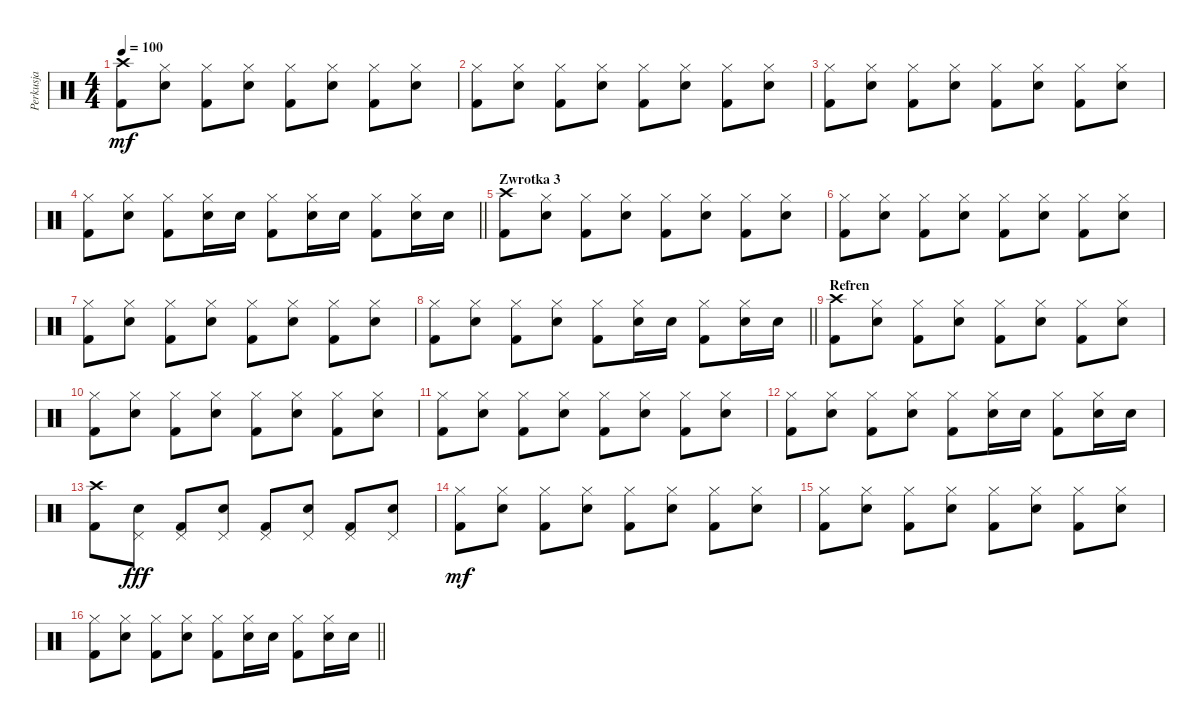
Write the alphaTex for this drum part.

\track ("Perkusja" "Perkusja") {instrument percussion}
\staff {score}
\articulation defaults
\ts (4 4)
\tempo 100
\clef neutral
\ks c
("Kick (hit) 2" "Crash high (hit)").8{dy mf} ("Snare (hit) 2" "Hi-Hat (closed)").8 ("Kick (hit) 2" "Hi-Hat (closed)").8 ("Snare (hit) 2" "Hi-Hat (closed)").8 ("Kick (hit) 2" "Hi-Hat (closed)").8 ("Snare (hit) 2" "Hi-Hat (closed)").8 ("Kick (hit) 2" "Hi-Hat (closed)").8 ("Snare (hit) 2" "Hi-Hat (closed)").8 |
("Kick (hit) 2" "Hi-Hat (closed)").8 ("Snare (hit) 2" "Hi-Hat (closed)").8 ("Kick (hit) 2" "Hi-Hat (closed)").8 ("Snare (hit) 2" "Hi-Hat (closed)").8 ("Kick (hit) 2" "Hi-Hat (closed)").8 ("Snare (hit) 2" "Hi-Hat (closed)").8 ("Kick (hit) 2" "Hi-Hat (closed)").8 ("Snare (hit) 2" "Hi-Hat (closed)").8 |
("Kick (hit) 2" "Hi-Hat (closed)").8 ("Snare (hit) 2" "Hi-Hat (closed)").8 ("Kick (hit) 2" "Hi-Hat (closed)").8 ("Snare (hit) 2" "Hi-Hat (closed)").8 ("Kick (hit) 2" "Hi-Hat (closed)").8 ("Snare (hit) 2" "Hi-Hat (closed)").8 ("Kick (hit) 2" "Hi-Hat (closed)").8 ("Snare (hit) 2" "Hi-Hat (closed)").8 |
\barLineRight lightlight
("Kick (hit) 2" "Hi-Hat (closed)").8 ("Snare (hit) 2" "Hi-Hat (closed)").8 ("Kick (hit) 2" "Hi-Hat (closed)").8 ("Snare (hit) 2" "Hi-Hat (closed)").16 "Snare (hit) 2".16 ("Kick (hit) 2" "Hi-Hat (closed)").8 ("Snare (hit) 2" "Hi-Hat (closed)").16 "Snare (hit) 2".16 ("Kick (hit) 2" "Hi-Hat (closed)").8 ("Snare (hit) 2" "Hi-Hat (closed)").16 "Snare (hit) 2".16 |
\section ("" "Zwrotka 3")
("Kick (hit) 2" "Crash high (hit)").8 ("Snare (hit) 2" "Hi-Hat (closed)").8 ("Kick (hit) 2" "Hi-Hat (closed)").8 ("Snare (hit) 2" "Hi-Hat (closed)").8 ("Kick (hit) 2" "Hi-Hat (closed)").8 ("Snare (hit) 2" "Hi-Hat (closed)").8 ("Kick (hit) 2" "Hi-Hat (closed)").8 ("Snare (hit) 2" "Hi-Hat (closed)").8 |
("Kick (hit) 2" "Hi-Hat (closed)").8 ("Snare (hit) 2" "Hi-Hat (closed)").8 ("Kick (hit) 2" "Hi-Hat (closed)").8 ("Snare (hit) 2" "Hi-Hat (closed)").8 ("Kick (hit) 2" "Hi-Hat (closed)").8 ("Snare (hit) 2" "Hi-Hat (closed)").8 ("Kick (hit) 2" "Hi-Hat (closed)").8 ("Snare (hit) 2" "Hi-Hat (closed)").8 |
("Kick (hit) 2" "Hi-Hat (closed)").8 ("Snare (hit) 2" "Hi-Hat (closed)").8 ("Kick (hit) 2" "Hi-Hat (closed)").8 ("Snare (hit) 2" "Hi-Hat (closed)").8 ("Kick (hit) 2" "Hi-Hat (closed)").8 ("Snare (hit) 2" "Hi-Hat (closed)").8 ("Kick (hit) 2" "Hi-Hat (closed)").8 ("Snare (hit) 2" "Hi-Hat (closed)").8 |
\barLineRight lightlight
("Kick (hit) 2" "Hi-Hat (closed)").8 ("Snare (hit) 2" "Hi-Hat (closed)").8 ("Kick (hit) 2" "Hi-Hat (closed)").8 ("Snare (hit) 2" "Hi-Hat (closed)").8 ("Kick (hit) 2" "Hi-Hat (closed)").8 ("Snare (hit) 2" "Hi-Hat (closed)").16 "Snare (hit) 2".16 ("Kick (hit) 2" "Hi-Hat (closed)").8 ("Snare (hit) 2" "Hi-Hat (closed)").16 "Snare (hit) 2".16 |
\section ("" "Refren")
("Kick (hit) 2" "Crash high (hit)").8 ("Snare (hit) 2" "Hi-Hat (closed)").8 ("Kick (hit) 2" "Hi-Hat (closed)").8 ("Snare (hit) 2" "Hi-Hat (closed)").8 ("Kick (hit) 2" "Hi-Hat (closed)").8 ("Snare (hit) 2" "Hi-Hat (closed)").8 ("Kick (hit) 2" "Hi-Hat (closed)").8 ("Snare (hit) 2" "Hi-Hat (closed)").8 |
("Kick (hit) 2" "Hi-Hat (closed)").8 ("Snare (hit) 2" "Hi-Hat (closed)").8 ("Kick (hit) 2" "Hi-Hat (closed)").8 ("Snare (hit) 2" "Hi-Hat (closed)").8 ("Kick (hit) 2" "Hi-Hat (closed)").8 ("Snare (hit) 2" "Hi-Hat (closed)").8 ("Kick (hit) 2" "Hi-Hat (closed)").8 ("Snare (hit) 2" "Hi-Hat (closed)").8 |
("Kick (hit) 2" "Hi-Hat (closed)").8 ("Snare (hit) 2" "Hi-Hat (closed)").8 ("Kick (hit) 2" "Hi-Hat (closed)").8 ("Snare (hit) 2" "Hi-Hat (closed)").8 ("Kick (hit) 2" "Hi-Hat (closed)").8 ("Snare (hit) 2" "Hi-Hat (closed)").8 ("Kick (hit) 2" "Hi-Hat (closed)").8 ("Snare (hit) 2" "Hi-Hat (closed)").8 |
("Kick (hit) 2" "Hi-Hat (closed)").8 ("Snare (hit) 2" "Hi-Hat (closed)").8 ("Kick (hit) 2" "Hi-Hat (closed)").8 ("Snare (hit) 2" "Hi-Hat (closed)").8 ("Kick (hit) 2" "Hi-Hat (closed)").8 ("Snare (hit) 2" "Hi-Hat (closed)").16 "Snare (hit) 2".16 ("Kick (hit) 2" "Hi-Hat (closed)").8 ("Snare (hit) 2" "Hi-Hat (closed)").16 "Snare (hit) 2".16 |
("Kick (hit) 2" "Crash high (hit)").8 ("Snare (hit) 2" "Pedal Hi-Hat (hit)").8{dy fff} ("Kick (hit) 2" "Pedal Hi-Hat (hit)").8 ("Snare (hit) 2" "Pedal Hi-Hat (hit)").8 ("Kick (hit) 2" "Pedal Hi-Hat (hit)").8 ("Snare (hit) 2" "Pedal Hi-Hat (hit)").8 ("Kick (hit) 2" "Pedal Hi-Hat (hit)").8 ("Snare (hit) 2" "Pedal Hi-Hat (hit)").8 |
("Kick (hit) 2" "Hi-Hat (closed)").8{dy mf} ("Snare (hit) 2" "Hi-Hat (closed)").8 ("Kick (hit) 2" "Hi-Hat (closed)").8 ("Snare (hit) 2" "Hi-Hat (closed)").8 ("Kick (hit) 2" "Hi-Hat (closed)").8 ("Snare (hit) 2" "Hi-Hat (closed)").8 ("Kick (hit) 2" "Hi-Hat (closed)").8 ("Snare (hit) 2" "Hi-Hat (closed)").8 |
("Kick (hit) 2" "Hi-Hat (closed)").8 ("Snare (hit) 2" "Hi-Hat (closed)").8 ("Kick (hit) 2" "Hi-Hat (closed)").8 ("Snare (hit) 2" "Hi-Hat (closed)").8 ("Kick (hit) 2" "Hi-Hat (closed)").8 ("Snare (hit) 2" "Hi-Hat (closed)").8 ("Kick (hit) 2" "Hi-Hat (closed)").8 ("Snare (hit) 2" "Hi-Hat (closed)").8 |
\barLineRight lightlight
("Kick (hit) 2" "Hi-Hat (closed)").8 ("Snare (hit) 2" "Hi-Hat (closed)").8 ("Kick (hit) 2" "Hi-Hat (closed)").8 ("Snare (hit) 2" "Hi-Hat (closed)").8 ("Kick (hit) 2" "Hi-Hat (closed)").8 ("Snare (hit) 2" "Hi-Hat (closed)").16 "Snare (hit) 2".16 ("Kick (hit) 2" "Hi-Hat (closed)").8 ("Snare (hit) 2" "Hi-Hat (closed)").16 "Snare (hit) 2".16
